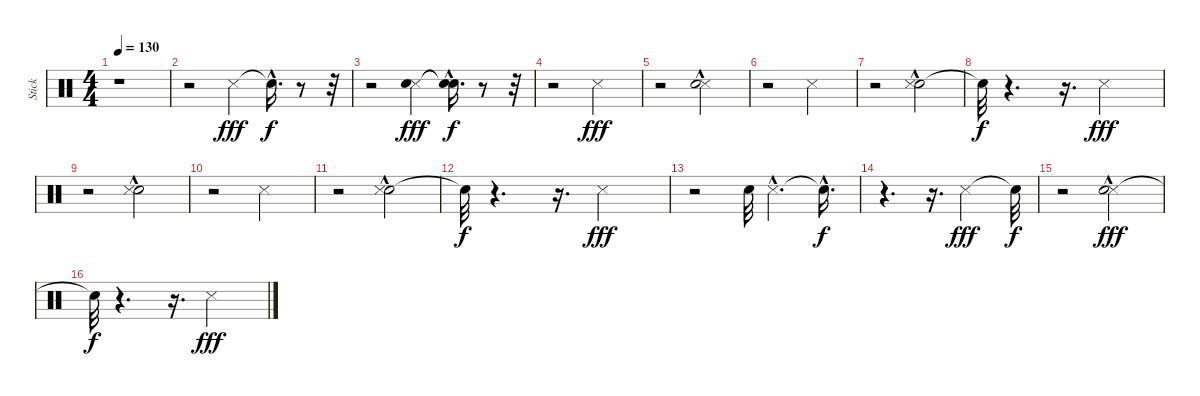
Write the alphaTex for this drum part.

\track ("Stick" "Stick") {instrument percussion}
\staff {score}
\articulation defaults
\ts (4 4)
\tempo 130
\clef neutral
\ks c
r.1{dy fff} |
r.2 "Snare (side stick) 3".4 "Snare (hit)"{hac t}.16{d dy f} r.8 r.32 |
r.2 ("Snare (side stick) 3" "Snare (hit) 2").4{dy fff} ("Snare (hit)"{hac t} "Snare (hit)"{hac t}).16{d dy f} r.8 r.32 |
r.2 "Snare (side stick) 3".2{dy fff} |
r.2 ("Snare (side stick) 3" "Snare (hit) 2"{hac}).2 |
r.2 "Snare (side stick) 3".2 |
r.2 ("Snare (hit) 2"{hac} "Snare (side stick) 3").2 |
"Snare (hit)"{t}.32{dy f} r.4{d} r.16{d} "Snare (side stick) 3".2{dy fff} |
r.2 ("Snare (hit) 2"{hac} "Snare (side stick) 3").2 |
r.2 "Snare (side stick) 3".2 |
r.2 ("Snare (hit) 2"{hac} "Snare (side stick) 3").2 |
"Snare (hit)"{t}.32{dy f} r.4{d} r.16{d} "Snare (side stick) 3".2{dy fff} |
r.2 "Snare (hit) 2".32 "Snare (side stick) 3"{hac}.4{d} "Snare (hit)"{hac t}.16{d dy f} |
r.4{d} r.16{d} "Snare (side stick) 3".2{dy fff} "Snare (hit)"{t}.32{dy f} |
r.2 ("Snare (side stick) 3" "Snare (hit) 2"{hac}).2{dy fff} |
"Snare (hit)"{t}.32{dy f} r.4{d} r.16{d} "Snare (side stick) 3".2{dy fff}
